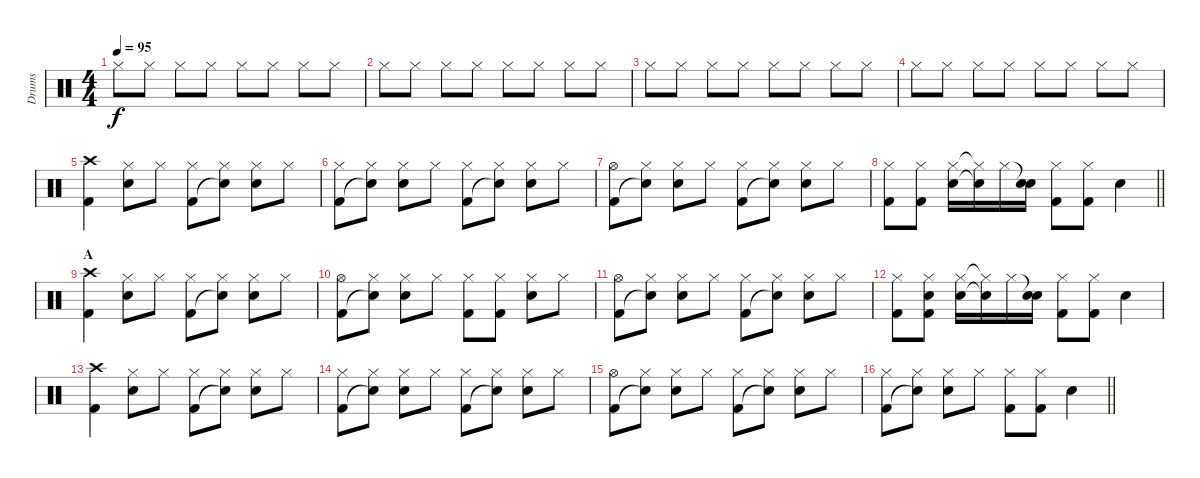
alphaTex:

\track ("Drums" "Drums") {instrument percussion}
\staff {score}
\articulation defaults
\ts (4 4)
\tempo 95
\clef neutral
\ks c "Hi-Hat (closed)".8{dy f} "Hi-Hat (closed)".8 "Hi-Hat (closed)".8 "Hi-Hat (closed)".8 "Hi-Hat (closed)".8 "Hi-Hat (closed)".8 "Hi-Hat (closed)".8 "Hi-Hat (closed)".8
|
"Hi-Hat (closed)".8 "Hi-Hat (closed)".8 "Hi-Hat (closed)".8 "Hi-Hat (closed)".8 "Hi-Hat (closed)".8 "Hi-Hat (closed)".8 "Hi-Hat (closed)".8 "Hi-Hat (closed)".8 |
"Hi-Hat (closed)".8 "Hi-Hat (closed)".8 "Hi-Hat (closed)".8 "Hi-Hat (closed)".8 "Hi-Hat (closed)".8 "Hi-Hat (closed)".8 "Hi-Hat (closed)".8 "Hi-Hat (closed)".8 |
"Hi-Hat (closed)".8 "Hi-Hat (closed)".8 "Hi-Hat (closed)".8 "Hi-Hat (closed)".8 "Hi-Hat (closed)".8 "Hi-Hat (closed)".8 "Hi-Hat (closed)".8 "Hi-Hat (closed)".8 |
("Crash high (hit)" "Kick (hit) 2").4 ("Hi-Hat (closed)" "Snare (hit) 2").8 "Hi-Hat (closed)".8 ("Hi-Hat (closed)" "Kick (hit) 2").8 ("Hi-Hat (closed)" "Snare (hit)"{t}).8 ("Hi-Hat (closed)" "Snare (hit) 2").8 "Hi-Hat (closed)".8 |
("Hi-Hat (closed)" "Kick (hit) 2").8 ("Hi-Hat (closed)" "Snare (hit)"{t}).8 ("Hi-Hat (closed)" "Snare (hit) 2").8 "Hi-Hat (closed)".8 ("Hi-Hat (closed)" "Kick (hit) 2").8 ("Hi-Hat (closed)" "Snare (hit)"{t}).8 ("Hi-Hat (closed)" "Snare (hit) 2").8 "Hi-Hat (closed)".8 |
("Hi-Hat (open)" "Kick (hit) 2").8 ("Hi-Hat (closed)" "Snare (hit)"{t}).8 ("Hi-Hat (closed)" "Snare (hit) 2").8 "Hi-Hat (closed)".8 ("Hi-Hat (closed)" "Kick (hit) 2").8 ("Hi-Hat (closed)" "Snare (hit)"{t}).8 ("Hi-Hat (closed)" "Snare (hit) 2").8 "Hi-Hat (closed)".8 |
\barLineRight lightlight
("Hi-Hat (closed)" "Kick (hit) 2").8 ("Hi-Hat (closed)" "Kick (hit) 2").8 ("Hi-Hat (closed)" "Snare (hit) 2").16 ("Hi-Hat (closed)"{t} "Snare (hit)"{t}).16 "Hi-Hat (closed)".16 ("Snare (hit)"{t} "Snare (hit) 2").16 ("Hi-Hat (closed)" "Kick (hit) 2").8 ("Hi-Hat (closed)" "Kick (hit) 2").8 "Snare (hit) 2".4 |
\section ("" "A")
("Crash high (hit)" "Kick (hit) 2").4 ("Hi-Hat (closed)" "Snare (hit) 2").8 "Hi-Hat (closed)".8 ("Hi-Hat (closed)" "Kick (hit) 2").8 ("Hi-Hat (closed)" "Snare (hit)"{t}).8 ("Hi-Hat (closed)" "Snare (hit) 2").8 "Hi-Hat (closed)".8 |
("Hi-Hat (open)" "Kick (hit) 2").8 ("Hi-Hat (closed)" "Snare (hit)"{t}).8 ("Hi-Hat (closed)" "Snare (hit) 2").8 "Hi-Hat (closed)".8 ("Hi-Hat (closed)" "Kick (hit) 2").8 ("Hi-Hat (closed)" "Kick (hit) 2").8 ("Hi-Hat (closed)" "Snare (hit) 2").8 "Hi-Hat (closed)".8 |
("Hi-Hat (open)" "Kick (hit) 2").8 ("Hi-Hat (closed)" "Snare (hit)"{t}).8 ("Hi-Hat (closed)" "Snare (hit) 2").8 "Hi-Hat (closed)".8 ("Hi-Hat (closed)" "Kick (hit) 2").8 ("Hi-Hat (closed)" "Snare (hit)"{t}).8 ("Hi-Hat (closed)" "Snare (hit) 2").8 "Hi-Hat (closed)".8 |
("Hi-Hat (closed)" "Kick (hit) 2").8 ("Hi-Hat (closed)" "Snare (hit) 2" "Kick (hit) 2").8 ("Hi-Hat (closed)" "Snare (hit) 2").16 ("Hi-Hat (closed)"{t} "Snare (hit)"{t}).16 "Hi-Hat (closed)".16 ("Snare (hit)"{t} "Snare (hit) 2").16 ("Hi-Hat (closed)" "Kick (hit) 2").8 ("Hi-Hat (closed)" "Kick (hit) 2").8 "Snare (hit) 2".4 |
("Crash high (hit)" "Kick (hit) 2").4 ("Hi-Hat (closed)" "Snare (hit) 2").8 "Hi-Hat (closed)".8 ("Hi-Hat (closed)" "Kick (hit) 2").8 ("Hi-Hat (closed)" "Snare (hit)"{t}).8 ("Hi-Hat (closed)" "Snare (hit) 2").8 "Hi-Hat (closed)".8 |
("Hi-Hat (closed)" "Kick (hit) 2").8 ("Hi-Hat (closed)" "Snare (hit)"{t}).8 ("Hi-Hat (closed)" "Snare (hit) 2").8 "Hi-Hat (closed)".8 ("Hi-Hat (closed)" "Kick (hit) 2").8 ("Hi-Hat (closed)" "Snare (hit)"{t}).8 ("Hi-Hat (closed)" "Snare (hit) 2").8 "Hi-Hat (closed)".8 |
("Hi-Hat (open)" "Kick (hit) 2").8 ("Hi-Hat (closed)" "Snare (hit)"{t}).8 ("Hi-Hat (closed)" "Snare (hit) 2").8 "Hi-Hat (closed)".8 ("Hi-Hat (closed)" "Kick (hit) 2").8 ("Hi-Hat (closed)" "Snare (hit)"{t}).8 ("Hi-Hat (closed)" "Snare (hit) 2").8 "Hi-Hat (closed)".8 |
\barLineRight lightlight
("Hi-Hat (closed)" "Kick (hit) 2").8 ("Hi-Hat (closed)" "Snare (hit)"{t}).8 ("Hi-Hat (closed)" "Snare (hit) 2").8 "Hi-Hat (closed)".8 ("Hi-Hat (closed)" "Kick (hit) 2").8 ("Hi-Hat (closed)" "Kick (hit) 2").8 "Snare (hit) 2".4
